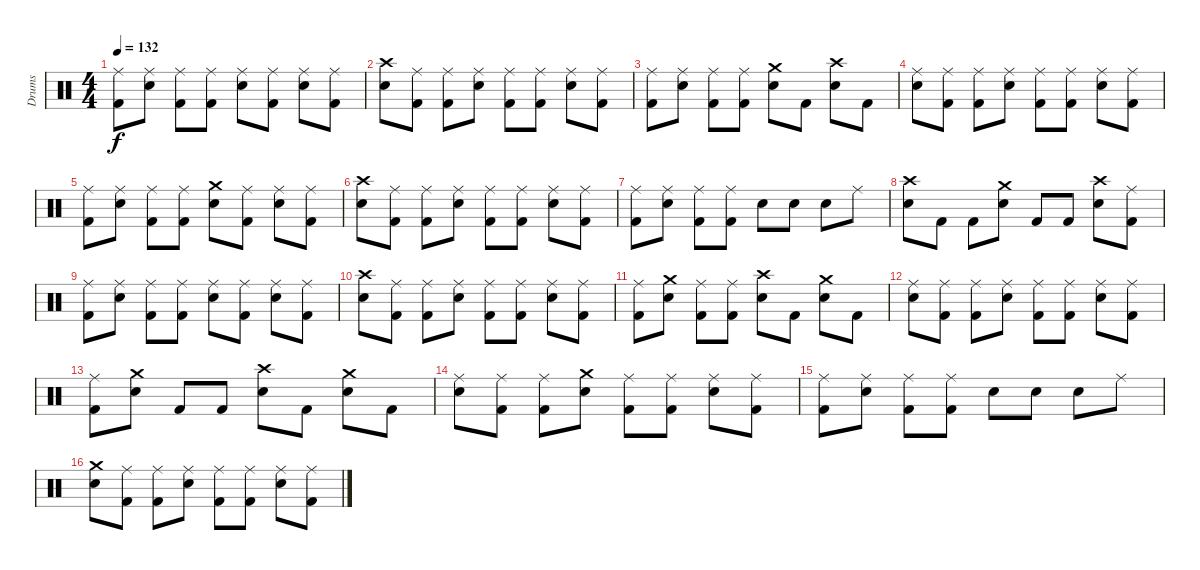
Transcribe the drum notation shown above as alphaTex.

\track ("Drums" "Drums") {instrument percussion}
\staff {score}
\articulation defaults
\ts (4 4)
\tempo 132
\clef neutral
\ks c
("Ride (middle)" "Kick (hit) 2").8{dy f} ("Ride (middle)" "Snare (hit) 2").8 ("Ride (middle)" "Kick (hit) 2").8 ("Ride (middle)" "Kick (hit) 2").8 ("Ride (middle)" "Snare (hit) 2").8 ("Ride (middle)" "Kick (hit) 2").8 ("Ride (middle)" "Snare (hit) 2").8 ("Ride (middle)" "Kick (hit) 2").8 |
("Crash high (hit)" "Snare (hit) 2").8 ("Ride (middle)" "Kick (hit) 2").8 ("Ride (middle)" "Kick (hit) 2").8 ("Ride (middle)" "Snare (hit) 2").8 ("Ride (middle)" "Kick (hit) 2").8 ("Ride (middle)" "Kick (hit) 2").8 ("Ride (middle)" "Snare (hit) 2").8 ("Ride (middle)" "Kick (hit) 2").8 |
("Ride (middle)" "Kick (hit) 2").8 ("Ride (middle)" "Snare (hit) 2").8 ("Ride (middle)" "Kick (hit) 2").8 ("Ride (middle)" "Kick (hit) 2").8 ("Crash medium (hit)" "Snare (hit) 2").8 "Kick (hit) 2".8 ("Crash high (hit)" "Snare (hit) 2").8 "Kick (hit) 2".8 |
("Ride (middle)" "Snare (hit) 2").8 ("Ride (middle)" "Kick (hit) 2").8 ("Ride (middle)" "Kick (hit) 2").8 ("Ride (middle)" "Snare (hit) 2").8 ("Ride (middle)" "Kick (hit) 2").8 ("Ride (middle)" "Kick (hit) 2").8 ("Ride (middle)" "Snare (hit) 2").8 ("Ride (middle)" "Kick (hit) 2").8 |
("Ride (middle)" "Kick (hit) 2").8 ("Ride (middle)" "Snare (hit) 2").8 ("Ride (middle)" "Kick (hit) 2").8 ("Ride (middle)" "Kick (hit) 2").8 ("Crash medium (hit)" "Snare (hit) 2").8 ("Ride (middle)" "Kick (hit) 2").8 ("Ride (middle)" "Snare (hit) 2").8 ("Ride (middle)" "Kick (hit) 2").8 |
("Crash high (hit)" "Snare (hit) 2").8 ("Ride (middle)" "Kick (hit) 2").8 ("Ride (middle)" "Kick (hit) 2").8 ("Ride (middle)" "Snare (hit) 2").8 ("Ride (middle)" "Kick (hit) 2").8 ("Ride (middle)" "Kick (hit) 2").8 ("Ride (middle)" "Snare (hit) 2").8 ("Ride (middle)" "Kick (hit) 2").8 |
("Ride (middle)" "Kick (hit) 2").8 ("Ride (middle)" "Snare (hit) 2").8 ("Ride (middle)" "Kick (hit) 2").8 ("Ride (middle)" "Kick (hit) 2").8 "Snare (hit) 2".8 "Snare (hit) 2".8 "Snare (hit) 2".8 "Ride (middle)".8 |
("Crash high (hit)" "Snare (hit) 2").8 "Kick (hit) 2".8 "Kick (hit) 2".8 ("Crash medium (hit)" "Snare (hit) 2").8 "Kick (hit) 2".8 "Kick (hit) 2".8 ("Crash high (hit)" "Snare (hit) 2").8 ("Ride (middle)" "Kick (hit) 2").8 |
("Ride (middle)" "Kick (hit) 2").8 ("Ride (middle)" "Snare (hit) 2").8 ("Ride (middle)" "Kick (hit) 2").8 ("Ride (middle)" "Kick (hit) 2").8 ("Ride (middle)" "Snare (hit) 2").8 ("Ride (middle)" "Kick (hit) 2").8 ("Ride (middle)" "Snare (hit) 2").8 ("Ride (middle)" "Kick (hit) 2").8 |
("Crash high (hit)" "Snare (hit) 2").8 ("Ride (middle)" "Kick (hit) 2").8 ("Ride (middle)" "Kick (hit) 2").8 ("Ride (middle)" "Snare (hit) 2").8 ("Ride (middle)" "Kick (hit) 2").8 ("Ride (middle)" "Kick (hit) 2").8 ("Ride (middle)" "Snare (hit) 2").8 ("Ride (middle)" "Kick (hit) 2").8 |
("Ride (middle)" "Kick (hit) 2").8 ("Crash medium (hit)" "Snare (hit) 2").8 ("Ride (middle)" "Kick (hit) 2").8 ("Ride (middle)" "Kick (hit) 2").8 ("Crash high (hit)" "Snare (hit) 2").8 "Kick (hit) 2".8 ("Crash medium (hit)" "Snare (hit) 2").8 "Kick (hit) 2".8 |
("Ride (middle)" "Snare (hit) 2").8 ("Ride (middle)" "Kick (hit) 2").8 ("Ride (middle)" "Kick (hit) 2").8 ("Ride (middle)" "Snare (hit) 2").8 ("Ride (middle)" "Kick (hit) 2").8 ("Ride (middle)" "Kick (hit) 2").8 ("Ride (middle)" "Snare (hit) 2").8 ("Ride (middle)" "Kick (hit) 2").8 |
("Ride (middle)" "Kick (hit) 2").8 ("Crash medium (hit)" "Snare (hit) 2").8 "Kick (hit) 2".8 "Kick (hit) 2".8 ("Crash high (hit)" "Snare (hit) 2").8 "Kick (hit) 2".8 ("Crash medium (hit)" "Snare (hit) 2").8 "Kick (hit) 2".8 |
("Ride (middle)" "Snare (hit) 2").8 ("Ride (middle)" "Kick (hit) 2").8 ("Ride (middle)" "Kick (hit) 2").8 ("Crash medium (hit)" "Snare (hit) 2").8 ("Ride (middle)" "Kick (hit) 2").8 ("Ride (middle)" "Kick (hit) 2").8 ("Ride (middle)" "Snare (hit) 2").8 ("Ride (middle)" "Kick (hit) 2").8 |
("Ride (middle)" "Kick (hit) 2").8 ("Ride (middle)" "Snare (hit) 2").8 ("Ride (middle)" "Kick (hit) 2").8 ("Ride (middle)" "Kick (hit) 2").8 "Snare (hit) 2".8 "Snare (hit) 2".8 "Snare (hit) 2".8 "Ride (middle)".8 |
("Crash medium (hit)" "Snare (hit) 2").8 ("Ride (middle)" "Kick (hit) 2").8 ("Ride (middle)" "Kick (hit) 2").8 ("Ride (middle)" "Snare (hit) 2").8 ("Ride (middle)" "Kick (hit) 2").8 ("Ride (middle)" "Kick (hit) 2").8 ("Ride (middle)" "Snare (hit) 2").8 ("Ride (middle)" "Kick (hit) 2").8
